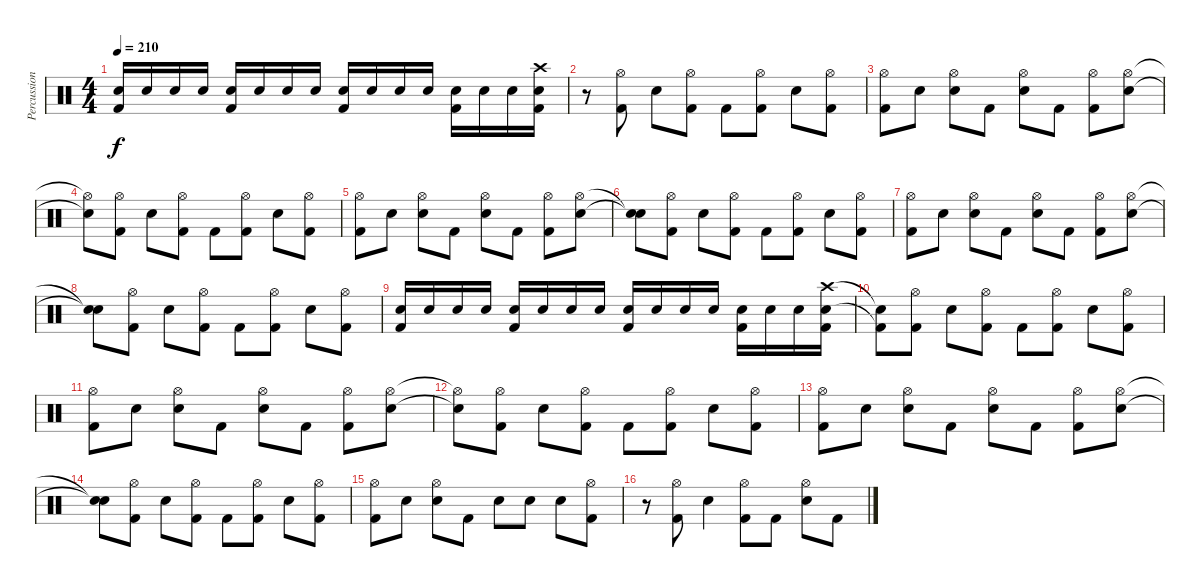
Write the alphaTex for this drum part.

\track ("Percussion" "Percussion") {instrument percussion}
\staff {score}
\articulation defaults
\ts (4 4)
\tempo 210
\clef neutral
\ks c
("Electric Snare (hit)" "Kick (hit) 2").16{dy f} "Electric Snare (hit)".16 "Electric Snare (hit)".16 "Electric Snare (hit)".16 ("Electric Snare (hit)" "Kick (hit) 2").16 "Electric Snare (hit)".16 "Electric Snare (hit)".16 "Electric Snare (hit)".16 ("Electric Snare (hit)" "Kick (hit) 2").16 "Electric Snare (hit)".16 "Electric Snare (hit)".16 "Electric Snare (hit)".16 ("Electric Snare (hit)" "Kick (hit) 2").16 "Electric Snare (hit)".16 "Electric Snare (hit)".16 ("Crash high (hit)" "Electric Snare (hit)" "Kick (hit) 2").16 |
r.8 ("Hi-Hat (open)" "Kick (hit) 2").8 "Electric Snare (hit)".8 ("Hi-Hat (open)" "Kick (hit) 2").8 "Kick (hit) 2".8 ("Hi-Hat (open)" "Kick (hit) 2").8 "Electric Snare (hit)".8 ("Hi-Hat (open)" "Kick (hit) 2").8 |
("Hi-Hat (open)" "Kick (hit) 2").8 "Electric Snare (hit)".8 ("Hi-Hat (open)" "Electric Snare (hit)").8 "Kick (hit) 2".8 ("Hi-Hat (open)" "Electric Snare (hit)").8 "Kick (hit) 2".8 ("Hi-Hat (open)" "Kick (hit) 2").8 ("Hi-Hat (open)" "Electric Snare (hit)").8 |
("Hi-Hat (open)"{t} "Electric Snare (hit)"{t}).8 ("Hi-Hat (open)" "Kick (hit) 2").8 "Electric Snare (hit)".8 ("Hi-Hat (open)" "Kick (hit) 2").8 "Kick (hit) 2".8 ("Hi-Hat (open)" "Kick (hit) 2").8 "Electric Snare (hit)".8 ("Hi-Hat (open)" "Kick (hit) 2").8 |
("Hi-Hat (open)" "Kick (hit) 2").8 "Electric Snare (hit)".8 ("Hi-Hat (open)" "Electric Snare (hit)").8 "Kick (hit) 2".8 ("Hi-Hat (open)" "Electric Snare (hit)").8 "Kick (hit) 2".8 ("Hi-Hat (open)" "Kick (hit) 2").8 ("Hi-Hat (open)" "Electric Snare (hit)").8 |
("Snare (hit)"{t} "Snare (hit)"{t}).8 ("Hi-Hat (open)" "Kick (hit) 2").8 "Electric Snare (hit)".8 ("Hi-Hat (open)" "Kick (hit) 2").8 "Kick (hit) 2".8 ("Hi-Hat (open)" "Kick (hit) 2").8 "Electric Snare (hit)".8 ("Hi-Hat (open)" "Kick (hit) 2").8 |
("Hi-Hat (open)" "Kick (hit) 2").8 "Electric Snare (hit)".8 ("Hi-Hat (open)" "Electric Snare (hit)").8 "Kick (hit) 2".8 ("Hi-Hat (open)" "Electric Snare (hit)").8 "Kick (hit) 2".8 ("Hi-Hat (open)" "Kick (hit) 2").8 ("Hi-Hat (open)" "Electric Snare (hit)").8 |
("Snare (hit)"{t} "Snare (hit)"{t}).8 ("Hi-Hat (open)" "Kick (hit) 2").8 "Electric Snare (hit)".8 ("Hi-Hat (open)" "Kick (hit) 2").8 "Kick (hit) 2".8 ("Hi-Hat (open)" "Kick (hit) 2").8 "Electric Snare (hit)".8 ("Hi-Hat (open)" "Kick (hit) 2").8 |
("Electric Snare (hit)" "Kick (hit) 2").16 "Electric Snare (hit)".16 "Electric Snare (hit)".16 "Electric Snare (hit)".16 ("Electric Snare (hit)" "Kick (hit) 2").16 "Electric Snare (hit)".16 "Electric Snare (hit)".16 "Electric Snare (hit)".16 ("Electric Snare (hit)" "Kick (hit) 2").16 "Electric Snare (hit)".16 "Electric Snare (hit)".16 "Electric Snare (hit)".16 ("Electric Snare (hit)" "Kick (hit) 2").16 "Electric Snare (hit)".16 "Electric Snare (hit)".16 ("Crash high (hit)" "Electric Snare (hit)" "Kick (hit) 2").16 |
("Snare (hit)"{t} "Kick (hit) 2"{t}).8 ("Hi-Hat (open)" "Kick (hit) 2").8 "Electric Snare (hit)".8 ("Hi-Hat (open)" "Kick (hit) 2").8 "Kick (hit) 2".8 ("Hi-Hat (open)" "Kick (hit) 2").8 "Electric Snare (hit)".8 ("Hi-Hat (open)" "Kick (hit) 2").8 |
("Hi-Hat (open)" "Kick (hit) 2").8 "Electric Snare (hit)".8 ("Hi-Hat (open)" "Electric Snare (hit)").8 "Kick (hit) 2".8 ("Hi-Hat (open)" "Electric Snare (hit)").8 "Kick (hit) 2".8 ("Hi-Hat (open)" "Kick (hit) 2").8 ("Hi-Hat (open)" "Electric Snare (hit)").8 |
("Hi-Hat (open)"{t} "Electric Snare (hit)"{t}).8 ("Hi-Hat (open)" "Kick (hit) 2").8 "Electric Snare (hit)".8 ("Hi-Hat (open)" "Kick (hit) 2").8 "Kick (hit) 2".8 ("Hi-Hat (open)" "Kick (hit) 2").8 "Electric Snare (hit)".8 ("Hi-Hat (open)" "Kick (hit) 2").8 |
("Hi-Hat (open)" "Kick (hit) 2").8 "Electric Snare (hit)".8 ("Hi-Hat (open)" "Electric Snare (hit)").8 "Kick (hit) 2".8 ("Hi-Hat (open)" "Electric Snare (hit)").8 "Kick (hit) 2".8 ("Hi-Hat (open)" "Kick (hit) 2").8 ("Hi-Hat (open)" "Electric Snare (hit)").8 |
("Snare (hit)"{t} "Snare (hit)"{t}).8 ("Hi-Hat (open)" "Kick (hit) 2").8 "Electric Snare (hit)".8 ("Hi-Hat (open)" "Kick (hit) 2").8 "Kick (hit) 2".8 ("Hi-Hat (open)" "Kick (hit) 2").8 "Electric Snare (hit)".8 ("Hi-Hat (open)" "Kick (hit) 2").8 |
("Hi-Hat (open)" "Kick (hit) 2").8 "Electric Snare (hit)".8 ("Hi-Hat (open)" "Electric Snare (hit)").8 "Kick (hit) 2".8 "Electric Snare (hit)".8 "Electric Snare (hit)".8 "Electric Snare (hit)".8 ("Hi-Hat (open)" "Kick (hit) 2").8 |
r.8 ("Hi-Hat (open)" "Kick (hit) 2").8 "Electric Snare (hit)".4 ("Hi-Hat (open)" "Kick (hit) 2").8 "Kick (hit) 2".8 ("Hi-Hat (open)" "Electric Snare (hit)").8 "Kick (hit) 2".8
